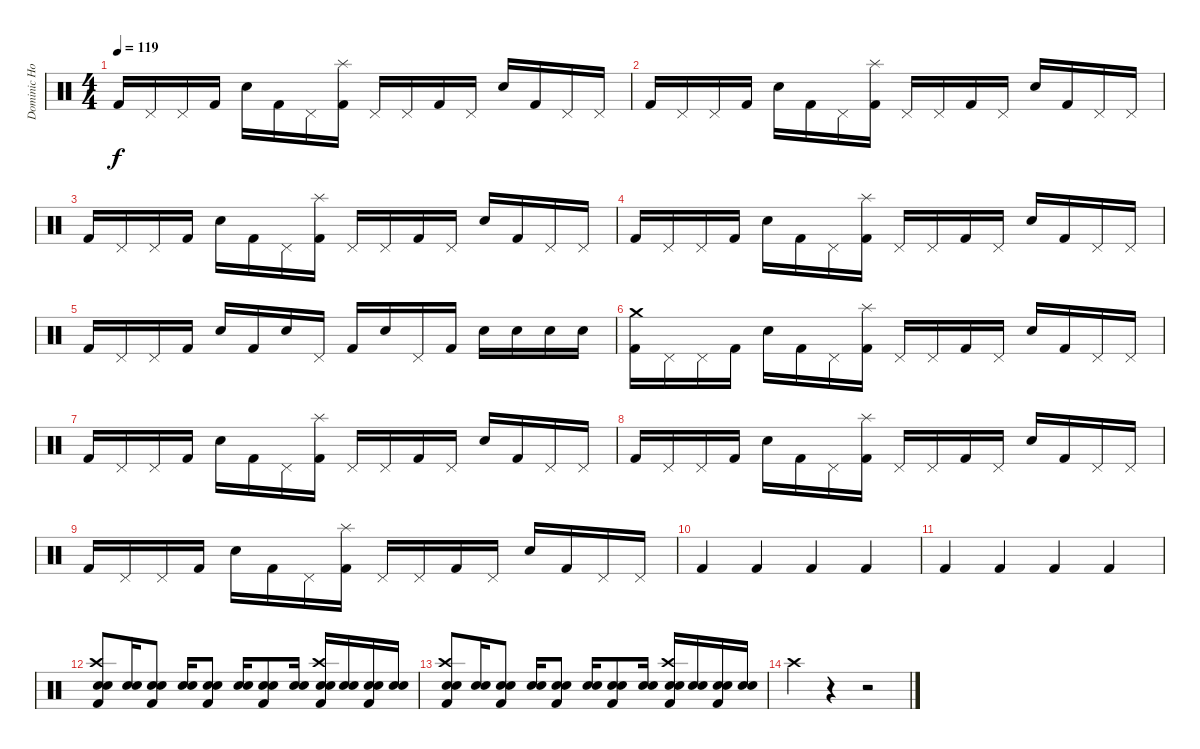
\track ("Dominic Howard" "Dominic Ho") {instrument percussion}
\staff {score}
\articulation defaults
\ts (4 4)
\tempo 119
\clef neutral
\ks c "Kick (hit) 2".16{dy f} "Pedal Hi-Hat (hit)".16 "Pedal Hi-Hat (hit)".16 "Kick (hit) 2".16 "Electric Snare (hit)".16 "Kick (hit) 2".16 "Pedal Hi-Hat (hit)".16
("Splash (hit)" "Kick (hit) 2").16 "Pedal Hi-Hat (hit)".16 "Pedal Hi-Hat (hit)".16 "Kick (hit) 2".16 "Pedal Hi-Hat (hit)".16 "Electric Snare (hit)".16 "Kick (hit) 2".16 "Pedal Hi-Hat (hit)".16 "Pedal Hi-Hat (hit)".16 |
"Kick (hit) 2".16 "Pedal Hi-Hat (hit)".16 "Pedal Hi-Hat (hit)".16 "Kick (hit) 2".16 "Electric Snare (hit)".16 "Kick (hit) 2".16 "Pedal Hi-Hat (hit)".16 ("Splash (hit)" "Kick (hit) 2").16 "Pedal Hi-Hat (hit)".16 "Pedal Hi-Hat (hit)".16 "Kick (hit) 2".16 "Pedal Hi-Hat (hit)".16 "Electric Snare (hit)".16 "Kick (hit) 2".16 "Pedal Hi-Hat (hit)".16 "Pedal Hi-Hat (hit)".16 |
"Kick (hit) 2".16 "Pedal Hi-Hat (hit)".16 "Pedal Hi-Hat (hit)".16 "Kick (hit) 2".16 "Electric Snare (hit)".16 "Kick (hit) 2".16 "Pedal Hi-Hat (hit)".16 ("Splash (hit)" "Kick (hit) 2").16 "Pedal Hi-Hat (hit)".16 "Pedal Hi-Hat (hit)".16 "Kick (hit) 2".16 "Pedal Hi-Hat (hit)".16 "Electric Snare (hit)".16 "Kick (hit) 2".16 "Pedal Hi-Hat (hit)".16 "Pedal Hi-Hat (hit)".16 |
"Kick (hit) 2".16 "Pedal Hi-Hat (hit)".16 "Pedal Hi-Hat (hit)".16 "Kick (hit) 2".16 "Electric Snare (hit)".16 "Kick (hit) 2".16 "Pedal Hi-Hat (hit)".16 ("Splash (hit)" "Kick (hit) 2").16 "Pedal Hi-Hat (hit)".16 "Pedal Hi-Hat (hit)".16 "Kick (hit) 2".16 "Pedal Hi-Hat (hit)".16 "Electric Snare (hit)".16 "Kick (hit) 2".16 "Pedal Hi-Hat (hit)".16 "Pedal Hi-Hat (hit)".16 |
"Kick (hit) 2".16 "Pedal Hi-Hat (hit)".16 "Pedal Hi-Hat (hit)".16 "Kick (hit) 2".16 "Electric Snare (hit)".16 "Kick (hit) 2".16 "Electric Snare (hit)".16 "Pedal Hi-Hat (hit)".16 "Kick (hit) 2".16 "Electric Snare (hit)".16 "Pedal Hi-Hat (hit)".16 "Kick (hit) 2".16 "Electric Snare (hit)".16 "Electric Snare (hit)".16 "Electric Snare (hit)".16 "Electric Snare (hit)".16 |
("Crash medium (hit)" "Kick (hit) 2").16 "Pedal Hi-Hat (hit)".16 "Pedal Hi-Hat (hit)".16 "Kick (hit) 2".16 "Electric Snare (hit)".16 "Kick (hit) 2".16 "Pedal Hi-Hat (hit)".16 ("Splash (hit)" "Kick (hit) 2").16 "Pedal Hi-Hat (hit)".16 "Pedal Hi-Hat (hit)".16 "Kick (hit) 2".16 "Pedal Hi-Hat (hit)".16 "Electric Snare (hit)".16 "Kick (hit) 2".16 "Pedal Hi-Hat (hit)".16 "Pedal Hi-Hat (hit)".16 |
"Kick (hit) 2".16 "Pedal Hi-Hat (hit)".16 "Pedal Hi-Hat (hit)".16 "Kick (hit) 2".16 "Electric Snare (hit)".16 "Kick (hit) 2".16 "Pedal Hi-Hat (hit)".16 ("Splash (hit)" "Kick (hit) 2").16 "Pedal Hi-Hat (hit)".16 "Pedal Hi-Hat (hit)".16 "Kick (hit) 2".16 "Pedal Hi-Hat (hit)".16 "Electric Snare (hit)".16 "Kick (hit) 2".16 "Pedal Hi-Hat (hit)".16 "Pedal Hi-Hat (hit)".16 |
"Kick (hit) 2".16 "Pedal Hi-Hat (hit)".16 "Pedal Hi-Hat (hit)".16 "Kick (hit) 2".16 "Electric Snare (hit)".16 "Kick (hit) 2".16 "Pedal Hi-Hat (hit)".16 ("Splash (hit)" "Kick (hit) 2").16 "Pedal Hi-Hat (hit)".16 "Pedal Hi-Hat (hit)".16 "Kick (hit) 2".16 "Pedal Hi-Hat (hit)".16 "Electric Snare (hit)".16 "Kick (hit) 2".16 "Pedal Hi-Hat (hit)".16 "Pedal Hi-Hat (hit)".16 |
"Kick (hit) 2".16 "Pedal Hi-Hat (hit)".16 "Pedal Hi-Hat (hit)".16 "Kick (hit) 2".16 "Electric Snare (hit)".16 "Kick (hit) 2".16 "Pedal Hi-Hat (hit)".16 ("Splash (hit)" "Kick (hit) 2").16 "Pedal Hi-Hat (hit)".16 "Pedal Hi-Hat (hit)".16 "Kick (hit) 2".16 "Pedal Hi-Hat (hit)".16 "Electric Snare (hit)".16 "Kick (hit) 2".16 "Pedal Hi-Hat (hit)".16 "Pedal Hi-Hat (hit)".16 |
"Kick (hit) 2".4 "Kick (hit) 2".4 "Kick (hit) 2".4 "Kick (hit) 2".4 |
"Kick (hit) 2".4 "Kick (hit) 2".4 "Kick (hit) 2".4 "Kick (hit) 2".4 |
("Crash high (hit)" "Electric Snare (hit)" "Snare (hit) 2" "Kick (hit) 2").8 ("Electric Snare (hit)" "Snare (hit) 2").16 ("Electric Snare (hit)" "Snare (hit) 2" "Kick (hit) 2").8 ("Electric Snare (hit)" "Snare (hit) 2").16 ("Electric Snare (hit)" "Snare (hit) 2" "Kick (hit) 2").8 ("Electric Snare (hit)" "Snare (hit) 2").16 ("Electric Snare (hit)" "Snare (hit) 2" "Kick (hit) 2").8 ("Electric Snare (hit)" "Snare (hit) 2").16 ("Crash high (hit)" "Electric Snare (hit)" "Snare (hit) 2" "Kick (hit) 2").16 ("Electric Snare (hit)" "Snare (hit) 2").16 ("Electric Snare (hit)" "Snare (hit) 2" "Kick (hit) 2").16 ("Electric Snare (hit)" "Snare (hit) 2").16 |
("Crash high (hit)" "Electric Snare (hit)" "Snare (hit) 2" "Kick (hit) 2").8 ("Electric Snare (hit)" "Snare (hit) 2").16 ("Electric Snare (hit)" "Snare (hit) 2" "Kick (hit) 2").8 ("Electric Snare (hit)" "Snare (hit) 2").16 ("Electric Snare (hit)" "Snare (hit) 2" "Kick (hit) 2").8 ("Electric Snare (hit)" "Snare (hit) 2").16 ("Electric Snare (hit)" "Snare (hit) 2" "Kick (hit) 2").8 ("Electric Snare (hit)" "Snare (hit) 2").16 ("Crash high (hit)" "Electric Snare (hit)" "Snare (hit) 2" "Kick (hit) 2").16 ("Electric Snare (hit)" "Snare (hit) 2").16 ("Electric Snare (hit)" "Snare (hit) 2" "Kick (hit) 2").16 ("Electric Snare (hit)" "Snare (hit) 2").16 |
"Crash high (hit)".4 r.4 r.2
